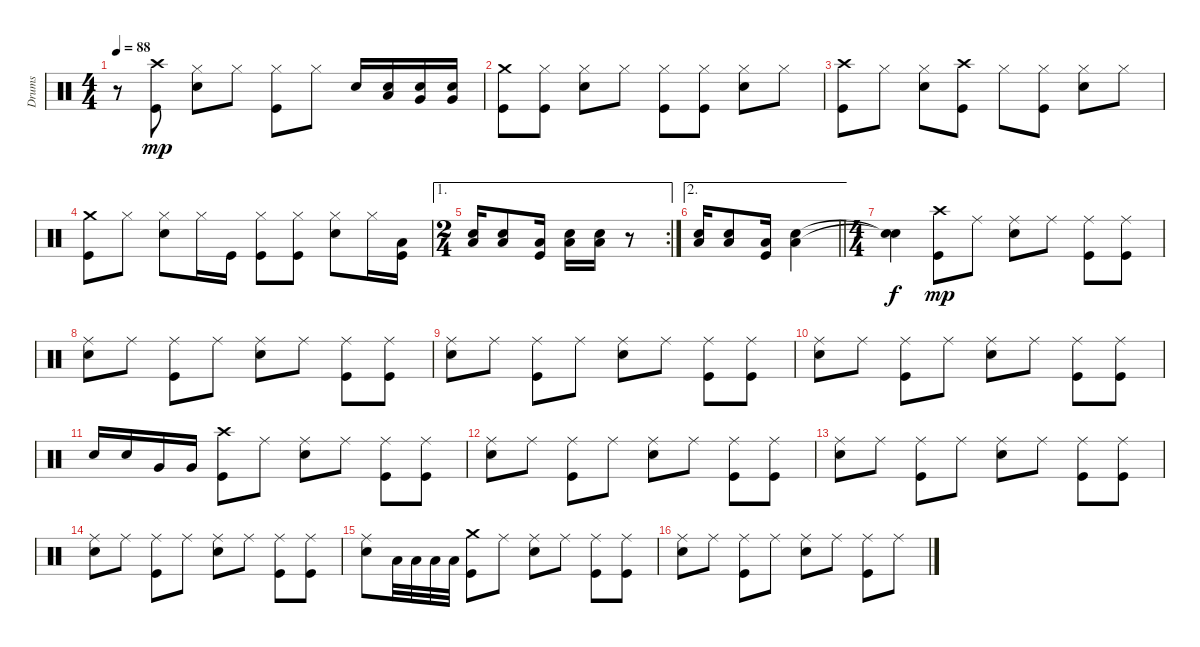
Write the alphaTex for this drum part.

\track ("Drums" "Drums") {instrument percussion}
\staff {score}
\articulation defaults
\ts (4 4)
\tempo 88
\clef neutral
\ks c
r.8{dy mp} ("Kick (hit)" "Crash high (hit)").8 ("Snare (hit) 2" "Hi-Hat (closed)").8 "Hi-Hat (closed)".8 ("Kick (hit)" "Hi-Hat (closed)").8 "Hi-Hat (closed)".8 "Snare (hit) 2".16 ("Low Tom (hit)" "Snare (hit) 2").16 ("Very Low Tom (hit)" "Snare (hit) 2").16 ("Snare (hit) 2" "Very Low Tom (hit)").16 |
("Kick (hit)" "Crash medium (hit)").8 ("Kick (hit)" "Hi-Hat (closed)").8 ("Snare (hit) 2" "Hi-Hat (closed)").8 "Hi-Hat (closed)".8 ("Kick (hit)" "Hi-Hat (closed)").8 ("Hi-Hat (closed)" "Kick (hit)").8 ("Snare (hit) 2" "Hi-Hat (closed)").8 "Hi-Hat (closed)".8 |
("Kick (hit)" "Crash high (hit)").8 "Hi-Hat (closed)".8 ("Snare (hit) 2" "Hi-Hat (closed)").8 ("Crash high (hit)" "Kick (hit)").8 "Hi-Hat (closed)".8 ("Kick (hit)" "Hi-Hat (closed)").8 ("Snare (hit) 2" "Hi-Hat (closed)").8 "Hi-Hat (closed)".8 |
("Kick (hit)" "Crash medium (hit)").8 "Hi-Hat (closed)".8 ("Snare (hit) 2" "Hi-Hat (closed)").8 "Hi-Hat (closed)".16 "Kick (hit)".16 ("Kick (hit)" "Hi-Hat (closed)").8 ("Kick (hit)" "Hi-Hat (closed)").8 ("Snare (hit) 2" "Hi-Hat (closed)").8 "Hi-Hat (closed)".16 ("Kick (hit)" "Low Floor Tom (hit)").16 |
\ae 1
\rc 2
\ts (2 4)
("Low Floor Tom (hit)" "Snare (hit) 2").16 ("Low Floor Tom (hit)" "Snare (hit) 2").8 ("Low Floor Tom (hit)" "Kick (hit)").16 ("Snare (hit) 2" "Low Floor Tom (hit)").16 ("Snare (hit) 2" "Low Floor Tom (hit)").16 r.8 |
\ae 2
\barLineRight lightlight
("Snare (hit) 2" "Low Floor Tom (hit)").16 ("Snare (hit) 2" "Low Floor Tom (hit)").8 ("Kick (hit)" "Low Floor Tom (hit)").16 ("Low Floor Tom (hit)" "Snare (hit) 2").4 |
\ts (4 4)
("Snare (hit)"{t} "Snare (hit)"{t}).4{dy f} ("Kick (hit)" "Crash high (hit)").8{dy mp} "Ride (middle)".8 ("Ride (middle)" "Snare (hit) 2").8 "Ride (middle)".8 ("Kick (hit)" "Ride (middle)").8 ("Ride (middle)" "Kick (hit)").8 |
("Snare (hit) 2" "Ride (middle)").8 "Ride (middle)".8 ("Ride (middle)" "Kick (hit)").8 "Ride (middle)".8 ("Ride (middle)" "Snare (hit) 2").8 "Ride (middle)".8 ("Kick (hit)" "Ride (middle)").8 ("Ride (middle)" "Kick (hit)").8 |
("Snare (hit) 2" "Ride (middle)").8 "Ride (middle)".8 ("Ride (middle)" "Kick (hit)").8 "Ride (middle)".8 ("Ride (middle)" "Snare (hit) 2").8 "Ride (middle)".8 ("Kick (hit)" "Ride (middle)").8 ("Ride (middle)" "Kick (hit)").8 |
("Snare (hit) 2" "Ride (middle)").8 "Ride (middle)".8 ("Ride (middle)" "Kick (hit)").8 "Ride (middle)".8 ("Ride (middle)" "Snare (hit) 2").8 "Ride (middle)".8 ("Kick (hit)" "Ride (middle)").8 ("Ride (middle)" "Kick (hit)").8 |
"Snare (hit) 2".16 "Snare (hit) 2".16 "Very Low Tom (hit)".16 "Very Low Tom (hit)".16 ("Crash high (hit)" "Kick (hit)").8 "Ride (middle)".8 ("Ride (middle)" "Snare (hit) 2").8 "Ride (middle)".8 ("Kick (hit)" "Ride (middle)").8 ("Ride (middle)" "Kick (hit)").8 |
("Snare (hit) 2" "Ride (middle)").8 "Ride (middle)".8 ("Ride (middle)" "Kick (hit)").8 "Ride (middle)".8 ("Ride (middle)" "Snare (hit) 2").8 "Ride (middle)".8 ("Kick (hit)" "Ride (middle)").8 ("Ride (middle)" "Kick (hit)").8 |
("Snare (hit) 2" "Ride (middle)").8 "Ride (middle)".8 ("Ride (middle)" "Kick (hit)").8 "Ride (middle)".8 ("Ride (middle)" "Snare (hit) 2").8 "Ride (middle)".8 ("Kick (hit)" "Ride (middle)").8 ("Ride (middle)" "Kick (hit)").8 |
("Snare (hit) 2" "Ride (middle)").8 "Ride (middle)".8 ("Ride (middle)" "Kick (hit)").8 "Ride (middle)".8 ("Ride (middle)" "Snare (hit) 2").8 "Ride (middle)".8 ("Kick (hit)" "Ride (middle)").8 ("Ride (middle)" "Kick (hit)").8 |
("Snare (hit) 2" "Ride (middle)").8 "Low Tom (hit)".32 "Low Tom (hit)".32 "Low Tom (hit)".32 "Low Tom (hit)".32 ("Crash medium (hit)" "Kick (hit)").8 "Ride (middle)".8 ("Ride (middle)" "Snare (hit) 2").8 "Ride (middle)".8 ("Kick (hit)" "Ride (middle)").8 ("Ride (middle)" "Kick (hit)").8 |
("Snare (hit) 2" "Ride (middle)").8 "Ride (middle)".8 ("Ride (middle)" "Kick (hit)").8 "Ride (middle)".8 ("Ride (middle)" "Snare (hit) 2").8 "Ride (middle)".8 ("Kick (hit)" "Ride (middle)").8 "Ride (middle)".8
